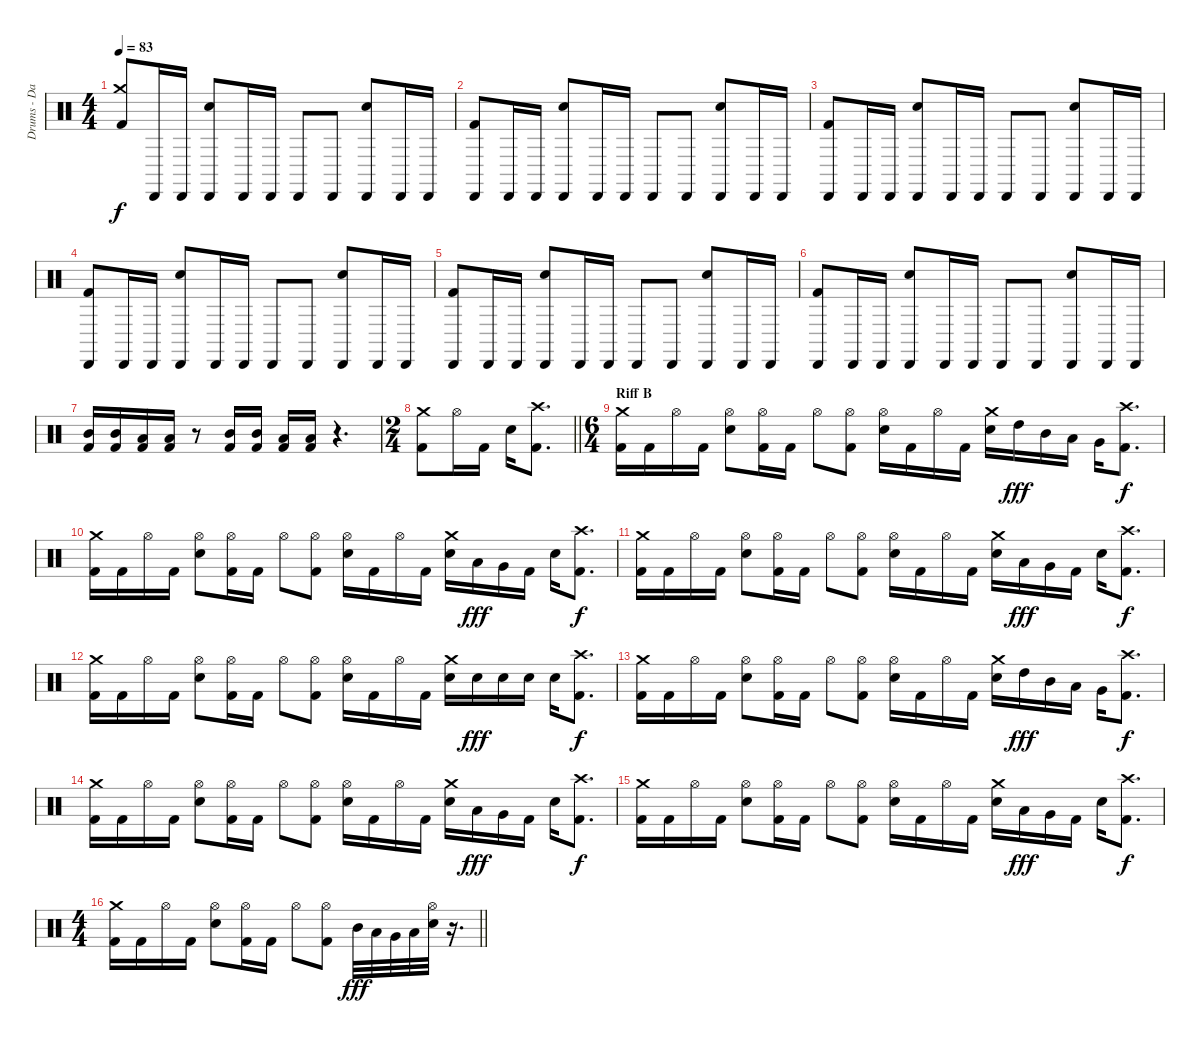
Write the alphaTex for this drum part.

\track ("Drums - Danny Carey" "Drums - Da") {instrument percussion}
\staff {score}
\articulation defaults
\ts (4 4)
\tempo 83
\clef neutral
\ks c
("Crash medium (hit)" "Kick (hit) 2").8{dy f} "Cabasa (hit)".16 "Cabasa (hit)".16 ("Cabasa (hit)" "Electric Snare (hit)").8 "Cabasa (hit)".16 "Cabasa (hit)".16 "Cabasa (hit)".8 "Cabasa (hit)".8 ("Cabasa (hit)" "Electric Snare (hit)").8 "Cabasa (hit)".16 "Cabasa (hit)".16 |
("Cabasa (hit)" "Kick (hit) 2").8 "Cabasa (hit)".16 "Cabasa (hit)".16 ("Cabasa (hit)" "Electric Snare (hit)").8 "Cabasa (hit)".16 "Cabasa (hit)".16 "Cabasa (hit)".8 "Cabasa (hit)".8 ("Cabasa (hit)" "Electric Snare (hit)").8 "Cabasa (hit)".16 "Cabasa (hit)".16 |
("Cabasa (hit)" "Kick (hit) 2").8 "Cabasa (hit)".16 "Cabasa (hit)".16 ("Cabasa (hit)" "Electric Snare (hit)").8 "Cabasa (hit)".16 "Cabasa (hit)".16 "Cabasa (hit)".8 "Cabasa (hit)".8 ("Cabasa (hit)" "Electric Snare (hit)").8 "Cabasa (hit)".16 "Cabasa (hit)".16 |
("Cabasa (hit)" "Kick (hit) 2").8 "Cabasa (hit)".16 "Cabasa (hit)".16 ("Cabasa (hit)" "Electric Snare (hit)").8 "Cabasa (hit)".16 "Cabasa (hit)".16 "Cabasa (hit)".8 "Cabasa (hit)".8 ("Cabasa (hit)" "Electric Snare (hit)").8 "Cabasa (hit)".16 "Cabasa (hit)".16 |
("Cabasa (hit)" "Kick (hit) 2").8 "Cabasa (hit)".16 "Cabasa (hit)".16 ("Cabasa (hit)" "Electric Snare (hit)").8 "Cabasa (hit)".16 "Cabasa (hit)".16 "Cabasa (hit)".8 "Cabasa (hit)".8 ("Cabasa (hit)" "Electric Snare (hit)").8 "Cabasa (hit)".16 "Cabasa (hit)".16 |
("Cabasa (hit)" "Kick (hit) 2").8 "Cabasa (hit)".16 "Cabasa (hit)".16 ("Cabasa (hit)" "Electric Snare (hit)").8 "Cabasa (hit)".16 "Cabasa (hit)".16 "Cabasa (hit)".8 "Cabasa (hit)".8 ("Cabasa (hit)" "Electric Snare (hit)").8 "Cabasa (hit)".16 "Cabasa (hit)".16 |
("Mid Tom (hit)" "Kick (hit) 2").16 ("Mid Tom (hit)" "Kick (hit) 2").16 ("Low Floor Tom (hit)" "Kick (hit) 2").16 ("Low Floor Tom (hit)" "Kick (hit) 2").16 r.8 ("Mid Tom (hit)" "Kick (hit) 2").16 ("Mid Tom (hit)" "Kick (hit) 2").16 ("Low Floor Tom (hit)" "Kick (hit) 2").16 ("Low Floor Tom (hit)" "Kick (hit) 2").16 r.4{d} |
\ts (2 4)
\barLineRight lightlight
("Crash medium (hit)" "Kick (hit) 2").8{volume 13} "Hi-Hat (open)".16 "Kick (hit) 2".16 "Electric Snare (hit)".16 ("Crash high (hit)" "Kick (hit) 2").8{d} |
\ts (6 4)
\section ("" "Riff B")
("Crash medium (hit)" "Kick (hit) 2").16 "Kick (hit) 2".16 "Hi-Hat (open)".16 "Kick (hit) 2".16 ("Electric Snare (hit)" "Hi-Hat (open)").8 ("Kick (hit) 2" "Hi-Hat (open)").16 "Kick (hit) 2".16 "Hi-Hat (open)".8 ("Kick (hit) 2" "Hi-Hat (open)").8 ("Electric Snare (hit)" "Hi-Hat (open)").16 "Kick (hit) 2".16 "Hi-Hat (open)".16 "Kick (hit) 2".16 ("Crash medium (hit)" "Electric Snare (hit)").16 "High Tom (hit)".16{dy fff} "Mid Tom (hit)".16 "Low Tom (hit)".16 "Very Low Tom (hit)".16 ("Crash high (hit)" "Kick (hit) 2").8{d dy f} |
("Crash medium (hit)" "Kick (hit) 2").16 "Kick (hit) 2".16 "Hi-Hat (open)".16 "Kick (hit) 2".16 ("Electric Snare (hit)" "Hi-Hat (open)").8 ("Kick (hit) 2" "Hi-Hat (open)").16 "Kick (hit) 2".16 "Hi-Hat (open)".8 ("Kick (hit) 2" "Hi-Hat (open)").8 ("Electric Snare (hit)" "Hi-Hat (open)").16 "Kick (hit) 2".16 "Hi-Hat (open)".16 "Kick (hit) 2".16 ("Crash medium (hit)" "Electric Snare (hit)").16 "Low Tom (hit)".16{dy fff} "Very Low Tom (hit)".16 "Kick (hit) 2".16 "Electric Snare (hit)".16 ("Crash high (hit)" "Kick (hit) 2").8{d dy f} |
("Crash medium (hit)" "Kick (hit) 2").16 "Kick (hit) 2".16 "Hi-Hat (open)".16 "Kick (hit) 2".16 ("Electric Snare (hit)" "Hi-Hat (open)").8 ("Kick (hit) 2" "Hi-Hat (open)").16 "Kick (hit) 2".16 "Hi-Hat (open)".8 ("Kick (hit) 2" "Hi-Hat (open)").8 ("Electric Snare (hit)" "Hi-Hat (open)").16 "Kick (hit) 2".16 "Hi-Hat (open)".16 "Kick (hit) 2".16 ("Crash medium (hit)" "Electric Snare (hit)").16 "Low Tom (hit)".16{dy fff} "Very Low Tom (hit)".16 "Kick (hit) 2".16 "Electric Snare (hit)".16 ("Crash high (hit)" "Kick (hit) 2").8{d dy f} |
("Crash medium (hit)" "Kick (hit) 2").16 "Kick (hit) 2".16 "Hi-Hat (open)".16 "Kick (hit) 2".16 ("Electric Snare (hit)" "Hi-Hat (open)").8 ("Kick (hit) 2" "Hi-Hat (open)").16 "Kick (hit) 2".16 "Hi-Hat (open)".8 ("Kick (hit) 2" "Hi-Hat (open)").8 ("Electric Snare (hit)" "Hi-Hat (open)").16 "Kick (hit) 2".16 "Hi-Hat (open)".16 "Kick (hit) 2".16 ("Crash medium (hit)" "Electric Snare (hit)").16 "Electric Snare (hit)".16{dy fff} "Electric Snare (hit)".16 "Electric Snare (hit)".16 "Electric Snare (hit)".16 ("Crash high (hit)" "Kick (hit) 2").8{d dy f} |
("Crash medium (hit)" "Kick (hit) 2").16 "Kick (hit) 2".16 "Hi-Hat (open)".16 "Kick (hit) 2".16 ("Electric Snare (hit)" "Hi-Hat (open)").8 ("Kick (hit) 2" "Hi-Hat (open)").16 "Kick (hit) 2".16 "Hi-Hat (open)".8 ("Kick (hit) 2" "Hi-Hat (open)").8 ("Electric Snare (hit)" "Hi-Hat (open)").16 "Kick (hit) 2".16 "Hi-Hat (open)".16 "Kick (hit) 2".16 ("Crash medium (hit)" "Electric Snare (hit)").16 "High Tom (hit)".16{dy fff} "Mid Tom (hit)".16 "Low Tom (hit)".16 "Very Low Tom (hit)".16 ("Crash high (hit)" "Kick (hit) 2").8{d dy f} |
("Crash medium (hit)" "Kick (hit) 2").16 "Kick (hit) 2".16 "Hi-Hat (open)".16 "Kick (hit) 2".16 ("Electric Snare (hit)" "Hi-Hat (open)").8 ("Kick (hit) 2" "Hi-Hat (open)").16 "Kick (hit) 2".16 "Hi-Hat (open)".8 ("Kick (hit) 2" "Hi-Hat (open)").8 ("Electric Snare (hit)" "Hi-Hat (open)").16 "Kick (hit) 2".16 "Hi-Hat (open)".16 "Kick (hit) 2".16 ("Crash medium (hit)" "Electric Snare (hit)").16 "Low Tom (hit)".16{dy fff} "Very Low Tom (hit)".16 "Kick (hit) 2".16 "Electric Snare (hit)".16 ("Crash high (hit)" "Kick (hit) 2").8{d dy f} |
("Crash medium (hit)" "Kick (hit) 2").16 "Kick (hit) 2".16 "Hi-Hat (open)".16 "Kick (hit) 2".16 ("Electric Snare (hit)" "Hi-Hat (open)").8 ("Kick (hit) 2" "Hi-Hat (open)").16 "Kick (hit) 2".16 "Hi-Hat (open)".8 ("Kick (hit) 2" "Hi-Hat (open)").8 ("Electric Snare (hit)" "Hi-Hat (open)").16 "Kick (hit) 2".16 "Hi-Hat (open)".16 "Kick (hit) 2".16 ("Crash medium (hit)" "Electric Snare (hit)").16 "Low Tom (hit)".16{dy fff} "Very Low Tom (hit)".16 "Kick (hit) 2".16 "Electric Snare (hit)".16 ("Crash high (hit)" "Kick (hit) 2").8{d dy f} |
\ts (4 4)
\barLineRight lightlight
("Crash medium (hit)" "Kick (hit) 2").16 "Kick (hit) 2".16 "Hi-Hat (open)".16 "Kick (hit) 2".16 ("Electric Snare (hit)" "Hi-Hat (open)").8 ("Kick (hit) 2" "Hi-Hat (open)").16 "Kick (hit) 2".16 "Hi-Hat (open)".8 ("Kick (hit) 2" "Hi-Hat (open)").8 "Mid Tom (hit)".32{dy fff} "Low Tom (hit)".32 "Very Low Tom (hit)".32 "Low Floor Tom (hit)".32 ("Hi-Hat (open)" "Electric Snare (hit)").32 r.16{d}
